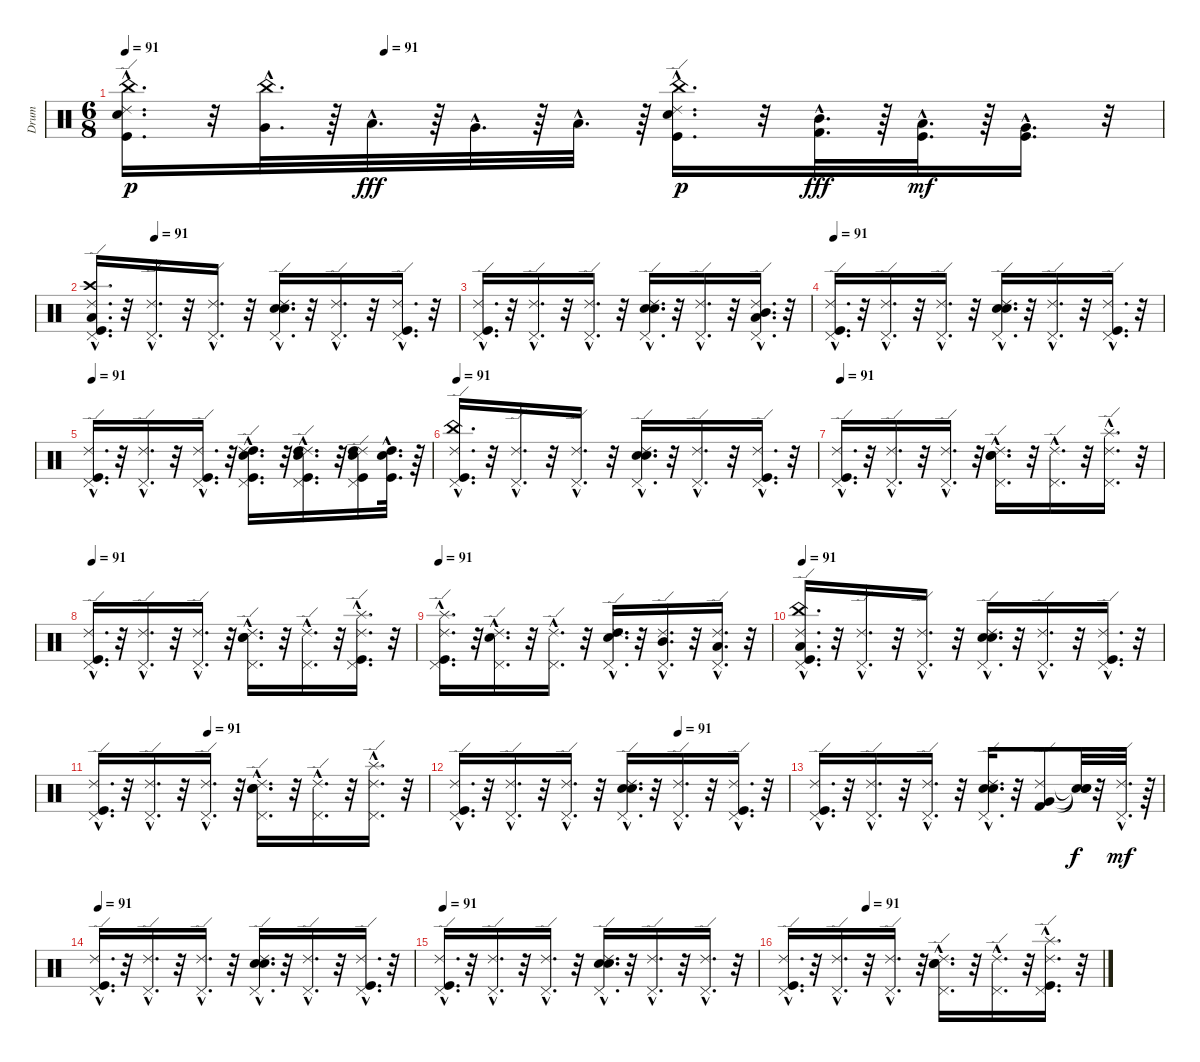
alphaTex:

\track ("Drum" "Drum") {instrument percussion}
\staff {score}
\articulation defaults
\ts (6 8)
\tempo 91
\tempo (91 0.25)
\clef neutral
\ks c
("Snare (hit) 2"{hac} "Kick (hit)"{hac} "Ride (edge) 2"{hac} "China (hit)"{hac}).16{d dy p} r.32 ("Very Low Tom (hit)"{hac} "China (hit)"{hac}).32{d} r.64 "Low Floor Tom (hit)"{hac}.32{d dy fff} r.64 "Very Low Tom (hit)"{hac}.32{d} r.64 "Low Floor Tom (hit)"{hac}.32{d} r.64 ("Ride (edge) 2"{hac} "Snare (hit) 2"{hac} "Kick (hit)"{hac} "China (hit)"{hac}).16{d dy p} r.32 ("Kick (hit) 2"{hac} "Mid Tom (hit)"{hac}).32{d dy fff} r.64 ("Low Tom (hit)"{hac} "Kick (hit)"{hac}).32{d dy mf} r.64 ("Very Low Tom (hit)"{hac} "Kick (hit)"{hac}).16{d} r.32 |
\tempo (91 0.16666666666666666)
("Crash high (hit)"{hac} "Ride (edge) 2"{hac} "Pedal Hi-Hat (hit)"{hac} "Kick (hit)"{hac} "Low Floor Tom (hit)"{hac}).16{d} r.32 ("Ride (edge) 2"{hac} "Pedal Hi-Hat (hit)"{hac}).16{d} r.32 ("Ride (edge) 2"{hac} "Pedal Hi-Hat (hit)"{hac}).16{d} r.32 ("Hand Clap (hit)"{hac} "Ride (edge) 2"{hac} "Snare (hit) 2"{hac} "Pedal Hi-Hat (hit)"{hac}).16{d} r.32 ("Ride (edge) 2"{hac} "Pedal Hi-Hat (hit)"{hac}).16{d} r.32 ("Ride (edge) 2"{hac} "Pedal Hi-Hat (hit)"{hac} "Kick (hit)"{hac}).16{d} r.32 |
("Ride (edge) 2"{hac} "Pedal Hi-Hat (hit)"{hac} "Kick (hit)"{hac}).16{d} r.32 ("Pedal Hi-Hat (hit)"{hac} "Ride (edge) 2"{hac}).16{d} r.32 ("Ride (edge) 2"{hac} "Pedal Hi-Hat (hit)"{hac}).16{d} r.32 ("Pedal Hi-Hat (hit)"{hac} "Hand Clap (hit)"{hac} "Snare (hit) 2"{hac} "Ride (edge) 2"{hac}).16{d} r.32 ("Pedal Hi-Hat (hit)"{hac} "Ride (edge) 2"{hac}).16{d} r.32 ("Pedal Hi-Hat (hit)"{hac} "Ride (edge) 2"{hac} "Low Floor Tom (hit)"{hac} "Mid Tom (hit)"{hac}).16{d} r.32 |
\tempo 91
("Kick (hit)"{hac} "Pedal Hi-Hat (hit)"{hac} "Ride (edge) 2"{hac}).16{d} r.32 ("Pedal Hi-Hat (hit)"{hac} "Ride (edge) 2"{hac}).16{d} r.32 ("Pedal Hi-Hat (hit)"{hac} "Ride (edge) 2"{hac}).16{d} r.32 ("Pedal Hi-Hat (hit)"{hac} "Snare (hit) 2"{hac} "Ride (edge) 2"{hac} "Hand Clap (hit)"{hac}).16{d} r.32 ("Pedal Hi-Hat (hit)"{hac} "Ride (edge) 2"{hac}).16{d} r.32 ("Pedal Hi-Hat (hit)"{hac} "Ride (edge) 2"{hac} "Kick (hit)"{hac}).16{d} r.32 |
\tempo 91
("Kick (hit)"{hac} "Pedal Hi-Hat (hit)"{hac} "Ride (edge) 2"{hac}).16{d} r.32 ("Pedal Hi-Hat (hit)"{hac} "Ride (edge) 2"{hac}).16{d} r.32 ("Kick (hit)"{hac} "Pedal Hi-Hat (hit)"{hac} "Ride (edge) 2"{hac}).16{d} r.32 ("High Tom (hit)"{hac} "Pedal Hi-Hat (hit)"{hac} "Snare (hit) 2"{hac} "Ride (edge) 2"{hac} "Kick (hit)"{hac}).16{d} r.32 ("Ride (edge) 2"{hac} "Kick (hit)"{hac} "Pedal Hi-Hat (hit)"{hac} "High Tom (hit)"{hac} "Snare (hit) 2"{hac}).16{d} r.32 ("Pedal Hi-Hat (hit)" "Ride (edge) 2" "High Tom (hit)" "Kick (hit)" "Snare (hit) 2").16 ("High Tom (hit)"{hac} "Snare (hit) 2"{hac} "Kick (hit)"{hac}).32{d} r.64 |
\tempo 91
("China (hit)"{hac} "Kick (hit)"{hac} "Pedal Hi-Hat (hit)"{hac} "Ride (edge) 2"{hac}).16{d} r.32 ("Pedal Hi-Hat (hit)"{hac} "Ride (edge) 2"{hac}).16{d} r.32 ("Pedal Hi-Hat (hit)"{hac} "Ride (edge) 2"{hac}).16{d} r.32 ("Pedal Hi-Hat (hit)"{hac} "Snare (hit) 2"{hac} "Ride (edge) 2"{hac} "Hand Clap (hit)"{hac}).16{d} r.32 ("Pedal Hi-Hat (hit)"{hac} "Ride (edge) 2"{hac}).16{d} r.32 ("Pedal Hi-Hat (hit)"{hac} "Ride (edge) 2"{hac} "Kick (hit)"{hac}).16{d} r.32 |
\tempo 91
("Ride (edge) 2"{hac} "Pedal Hi-Hat (hit)"{hac} "Kick (hit)"{hac}).16{d} r.32 ("Ride (edge) 2"{hac} "Pedal Hi-Hat (hit)"{hac}).16{d} r.32 ("Ride (edge) 2"{hac} "Pedal Hi-Hat (hit)"{hac}).16{d} r.32 ("Hand Clap (hit)"{hac} "Ride (edge) 2"{hac} "Snare (hit) 2"{hac} "Pedal Hi-Hat (hit)"{hac}).16{d} r.32 ("Ride (edge) 2"{hac} "Pedal Hi-Hat (hit)"{hac}).16{d} r.32 ("Ride (edge) 2"{hac} "Pedal Hi-Hat (hit)"{hac} "Splash (hit)"{hac}).16{d} r.32 |
\tempo 91
("Ride (edge) 2"{hac} "Pedal Hi-Hat (hit)"{hac} "Kick (hit)"{hac}).16{d} r.32 ("Ride (edge) 2"{hac} "Pedal Hi-Hat (hit)"{hac}).16{d} r.32 ("Ride (edge) 2"{hac} "Pedal Hi-Hat (hit)"{hac}).16{d} r.32 ("Hand Clap (hit)"{hac} "Ride (edge) 2"{hac} "Snare (hit) 2"{hac} "Pedal Hi-Hat (hit)"{hac}).16{d} r.32 ("Ride (edge) 2"{hac} "Pedal Hi-Hat (hit)"{hac}).16{d} r.32 ("Splash (hit)"{hac} "Ride (edge) 2"{hac} "Pedal Hi-Hat (hit)"{hac} "Kick (hit)"{hac}).16{d} r.32 |
\tempo 91
("Splash (hit)"{hac} "Ride (edge) 2"{hac} "Pedal Hi-Hat (hit)"{hac} "Kick (hit)"{hac}).16{d} r.32 ("Ride (edge) 2"{hac} "Pedal Hi-Hat (hit)"{hac} "Snare (hit) 2"{hac}).16{d} r.32 ("Ride (edge) 2"{hac} "Pedal Hi-Hat (hit)"{hac}).16{d} r.32 ("High Tom (hit)"{hac} "Ride (edge) 2"{hac} "Snare (hit) 2"{hac} "Pedal Hi-Hat (hit)"{hac}).16{d} r.32 ("Mid Tom (hit)"{hac} "Ride (edge) 2"{hac} "Pedal Hi-Hat (hit)"{hac}).16{d} r.32 ("Low Tom (hit)"{hac} "Ride (edge) 2"{hac} "Pedal Hi-Hat (hit)"{hac}).16{d} r.32 |
\tempo 91
("China (hit)"{hac} "Ride (edge) 2"{hac} "Pedal Hi-Hat (hit)"{hac} "Kick (hit)"{hac} "Low Floor Tom (hit)"{hac}).16{d} r.32 ("Ride (edge) 2"{hac} "Pedal Hi-Hat (hit)"{hac}).16{d} r.32 ("Ride (edge) 2"{hac} "Pedal Hi-Hat (hit)"{hac}).16{d} r.32 ("Hand Clap (hit)"{hac} "Ride (edge) 2"{hac} "Snare (hit) 2"{hac} "Pedal Hi-Hat (hit)"{hac}).16{d} r.32 ("Ride (edge) 2"{hac} "Pedal Hi-Hat (hit)"{hac}).16{d} r.32 ("Ride (edge) 2"{hac} "Pedal Hi-Hat (hit)"{hac} "Kick (hit)"{hac}).16{d} r.32 |
\tempo (91 0.3333333333333333)
("Kick (hit)"{hac} "Ride (edge) 2"{hac} "Pedal Hi-Hat (hit)"{hac}).16{d} r.32 ("Pedal Hi-Hat (hit)"{hac} "Ride (edge) 2"{hac}).16{d} r.32 ("Pedal Hi-Hat (hit)"{hac} "Ride (edge) 2"{hac}).16{d} r.32 ("Hand Clap (hit)"{hac} "Snare (hit) 2"{hac} "Ride (edge) 2"{hac} "Pedal Hi-Hat (hit)"{hac}).16{d} r.32 ("Ride (edge) 2"{hac} "Pedal Hi-Hat (hit)"{hac}).16{d} r.32 ("Pedal Hi-Hat (hit)"{hac} "Ride (edge) 2"{hac} "Splash (hit)"{hac}).16{d} r.32 |
\tempo (91 0.6666666666666666)
("Kick (hit)"{hac} "Pedal Hi-Hat (hit)"{hac} "Ride (edge) 2"{hac}).16{d} r.32 ("Pedal Hi-Hat (hit)"{hac} "Ride (edge) 2"{hac}).16{d} r.32 ("Pedal Hi-Hat (hit)"{hac} "Ride (edge) 2"{hac}).16{d} r.32 ("Pedal Hi-Hat (hit)"{hac} "Snare (hit) 2"{hac} "Ride (edge) 2"{hac} "Hand Clap (hit)"{hac}).16{d} r.32 ("Pedal Hi-Hat (hit)"{hac} "Ride (edge) 2"{hac}).16{d} r.32 ("Pedal Hi-Hat (hit)"{hac} "Ride (edge) 2"{hac} "Kick (hit)"{hac}).16{d} r.32 |
("Ride (edge) 2"{hac} "Pedal Hi-Hat (hit)"{hac} "Kick (hit)"{hac}).16{d} r.32 ("Ride (edge) 2"{hac} "Pedal Hi-Hat (hit)"{hac}).16{d} r.32 ("Ride (edge) 2"{hac} "Pedal Hi-Hat (hit)"{hac}).16{d} r.32 ("Ride (edge) 2"{hac} "Hand Clap (hit)"{hac} "Pedal Hi-Hat (hit)"{hac} "Snare (hit) 2"{hac}).16{d} r.32 ("Ride (edge) 2" "Very Low Tom (hit)" "Kick (hit) 2").8 ("Snare (hit)"{t} "Snare (hit)"{t} "Snare (hit)"{t}).32{dy f} r.32 ("Pedal Hi-Hat (hit)"{hac} "Ride (edge) 2"{hac}).32{d dy mf} r.64 |
\tempo 91
("Kick (hit)"{hac} "Pedal Hi-Hat (hit)"{hac} "Ride (edge) 2"{hac}).16{d} r.32 ("Pedal Hi-Hat (hit)"{hac} "Ride (edge) 2"{hac}).16{d} r.32 ("Pedal Hi-Hat (hit)"{hac} "Ride (edge) 2"{hac}).16{d} r.32 ("Pedal Hi-Hat (hit)"{hac} "Snare (hit) 2"{hac} "Ride (edge) 2"{hac} "Hand Clap (hit)"{hac}).16{d} r.32 ("Pedal Hi-Hat (hit)"{hac} "Ride (edge) 2"{hac}).16{d} r.32 ("Pedal Hi-Hat (hit)"{hac} "Ride (edge) 2"{hac} "Kick (hit)"{hac}).16{d} r.32 |
\tempo 91
("Ride (edge) 2"{hac} "Pedal Hi-Hat (hit)"{hac} "Kick (hit)"{hac}).16{d} r.32 ("Ride (edge) 2"{hac} "Pedal Hi-Hat (hit)"{hac}).16{d} r.32 ("Ride (edge) 2"{hac} "Pedal Hi-Hat (hit)"{hac}).16{d} r.32 ("Hand Clap (hit)"{hac} "Ride (edge) 2"{hac} "Snare (hit) 2"{hac} "Pedal Hi-Hat (hit)"{hac}).16{d} r.32 ("Ride (edge) 2"{hac} "Pedal Hi-Hat (hit)"{hac}).16{d} r.32 ("Ride (edge) 2"{hac} "Pedal Hi-Hat (hit)"{hac}).16{d} r.32 |
\tempo (91 0.25)
("Ride (edge) 2"{hac} "Pedal Hi-Hat (hit)"{hac} "Kick (hit)"{hac}).16{d} r.32 ("Ride (edge) 2"{hac} "Pedal Hi-Hat (hit)"{hac}).16{d} r.32 ("Ride (edge) 2"{hac} "Pedal Hi-Hat (hit)"{hac}).16{d} r.32 ("Ride (edge) 2"{hac} "Pedal Hi-Hat (hit)"{hac} "Snare (hit) 2"{hac} "Hand Clap (hit)"{hac}).16{d} r.32 ("Pedal Hi-Hat (hit)"{hac} "Ride (edge) 2"{hac}).16{d} r.32 ("Ride (edge) 2"{hac} "Pedal Hi-Hat (hit)"{hac} "Kick (hit)"{hac} "Splash (hit)"{hac}).16{d} r.32
